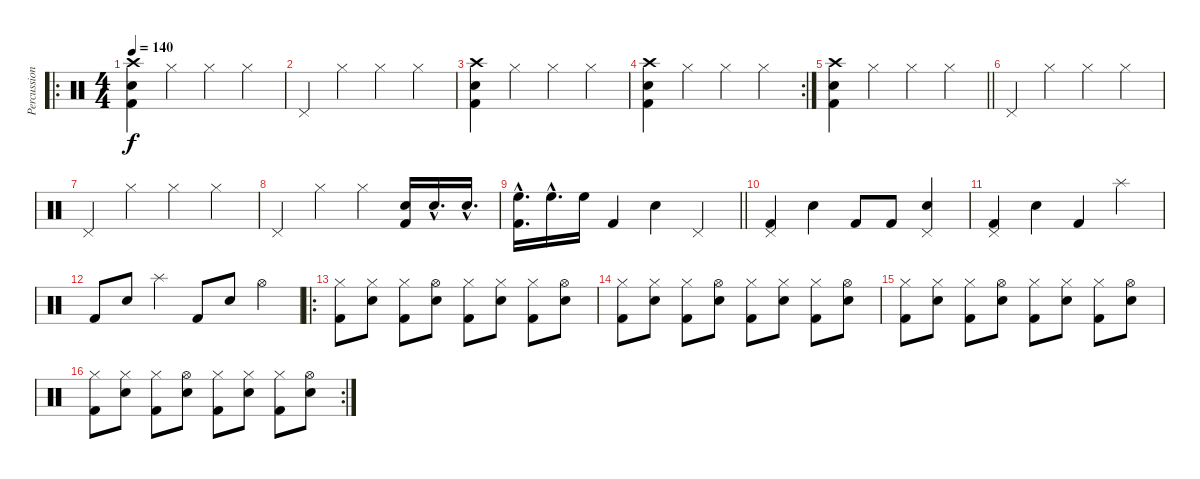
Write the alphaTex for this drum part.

\track ("Percussion" "Percussion") {instrument percussion}
\staff {score}
\articulation defaults
\ro
\ts (4 4)
\tempo 140
\clef neutral
\ks c
("Crash high (hit)" "Snare (hit) 2" "Kick (hit) 2").4{dy f} "Hi-Hat (closed)".4 "Hi-Hat (closed)".4 "Hi-Hat (closed)".4 |
"Pedal Hi-Hat (hit)".4 "Hi-Hat (closed)".4 "Hi-Hat (closed)".4 "Hi-Hat (closed)".4 |
("Crash high (hit)" "Snare (hit) 2" "Kick (hit) 2").4 "Hi-Hat (closed)".4 "Hi-Hat (closed)".4 "Hi-Hat (closed)".4 |
\rc 2
("Crash high (hit)" "Snare (hit) 2" "Kick (hit) 2").4 "Hi-Hat (closed)".4 "Hi-Hat (closed)".4 "Hi-Hat (closed)".4 |
\barLineRight lightlight
("Crash high (hit)" "Snare (hit) 2" "Kick (hit) 2").4 "Hi-Hat (closed)".4 "Hi-Hat (closed)".4 "Hi-Hat (closed)".4 |
"Pedal Hi-Hat (hit)".4 "Hi-Hat (closed)".4 "Hi-Hat (closed)".4 "Hi-Hat (closed)".4 |
"Pedal Hi-Hat (hit)".4 "Hi-Hat (closed)".4 "Hi-Hat (closed)".4 "Hi-Hat (closed)".4 |
"Pedal Hi-Hat (hit)".4 "Hi-Hat (closed)".4 "Hi-Hat (closed)".4 ("Snare (hit) 2" "Kick (hit) 2").16 "Snare (hit) 2"{hac}.16{d} "Snare (hit) 2"{hac}.16{d} |
\barLineRight lightlight
("High Floor Tom (hit)"{hac} "Kick (hit) 2"{hac}).16{d} "High Floor Tom (hit)"{hac}.16{d} "High Floor Tom (hit)".16 "Kick (hit) 2".4 "Snare (hit) 2".4 "Pedal Hi-Hat (hit)".4 |
("Pedal Hi-Hat (hit)" "Kick (hit) 2").4 "Snare (hit) 2".4 "Kick (hit) 2".8 "Kick (hit) 2".8 ("Pedal Hi-Hat (hit)" "Snare (hit) 2").4 |
("Pedal Hi-Hat (hit)" "Kick (hit) 2").4 "Snare (hit) 2".4 "Kick (hit) 2".4 "Splash (hit)".4 |
"Kick (hit) 2".8 "Snare (hit) 2".8 "Splash (hit)".4 "Kick (hit) 2".8 "Snare (hit) 2".8 "Hi-Hat (open)".4 |
\ro
("Hi-Hat (closed)" "Kick (hit) 2").8 ("Hi-Hat (closed)" "Snare (hit) 2").8 ("Hi-Hat (closed)" "Kick (hit) 2").8 ("Hi-Hat (open)" "Snare (hit) 2").8 ("Hi-Hat (closed)" "Kick (hit) 2").8 ("Hi-Hat (closed)" "Snare (hit) 2").8 ("Hi-Hat (closed)" "Kick (hit) 2").8 ("Hi-Hat (open)" "Snare (hit) 2").8 |
("Hi-Hat (closed)" "Kick (hit) 2").8 ("Hi-Hat (closed)" "Snare (hit) 2").8 ("Hi-Hat (closed)" "Kick (hit) 2").8 ("Hi-Hat (open)" "Snare (hit) 2").8 ("Hi-Hat (closed)" "Kick (hit) 2").8 ("Hi-Hat (closed)" "Snare (hit) 2").8 ("Hi-Hat (closed)" "Kick (hit) 2").8 ("Hi-Hat (open)" "Snare (hit) 2").8 |
("Hi-Hat (closed)" "Kick (hit) 2").8 ("Hi-Hat (closed)" "Snare (hit) 2").8 ("Hi-Hat (closed)" "Kick (hit) 2").8 ("Hi-Hat (open)" "Snare (hit) 2").8 ("Hi-Hat (closed)" "Kick (hit) 2").8 ("Hi-Hat (closed)" "Snare (hit) 2").8 ("Hi-Hat (closed)" "Kick (hit) 2").8 ("Hi-Hat (open)" "Snare (hit) 2").8 |
\rc 2
("Hi-Hat (closed)" "Kick (hit) 2").8 ("Hi-Hat (closed)" "Snare (hit) 2").8 ("Hi-Hat (closed)" "Kick (hit) 2").8 ("Hi-Hat (open)" "Snare (hit) 2").8 ("Hi-Hat (closed)" "Kick (hit) 2").8 ("Hi-Hat (closed)" "Snare (hit) 2").8 ("Hi-Hat (closed)" "Kick (hit) 2").8 ("Hi-Hat (open)" "Snare (hit) 2").8
